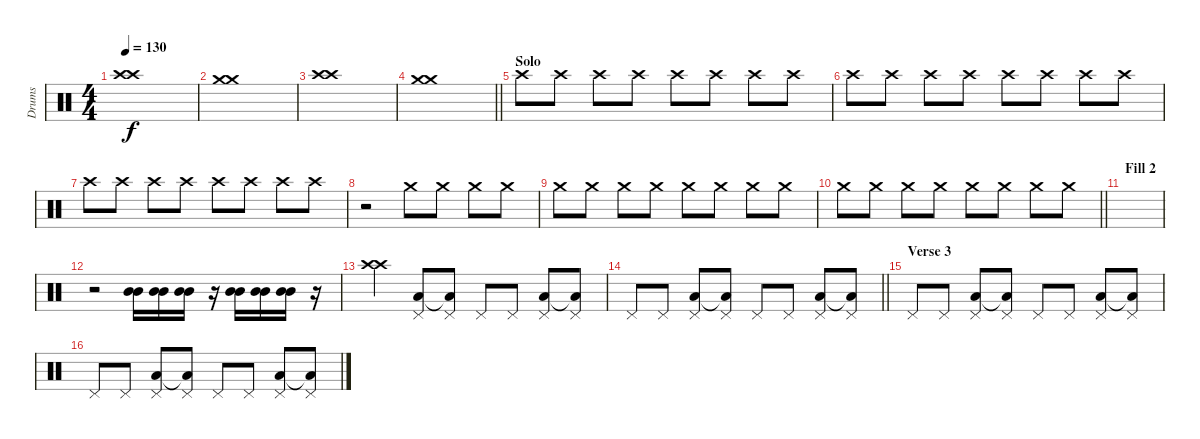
\track ("Drums" "Drums") {instrument percussion}
\staff {score}
\articulation defaults
\ts (4 4)
\tempo 130
\clef neutral
\ks c
("Crash high (hit)" "Crash high (hit)").1{dy f} |
("Crash medium (hit)" "Crash medium (hit)").1 |
("Crash high (hit)" "Crash high (hit)").1 |
\barLineRight lightlight
("Crash medium (hit)" "Crash medium (hit)").1 |
\section ("" "Solo")
"Crash high (hit)".8 "Crash high (hit)".8 "Crash high (hit)".8 "Crash high (hit)".8 "Crash high (hit)".8 "Crash high (hit)".8 "Crash high (hit)".8 "Crash high (hit)".8 |
"Crash high (hit)".8 "Crash high (hit)".8 "Crash high (hit)".8 "Crash high (hit)".8 "Crash high (hit)".8 "Crash high (hit)".8 "Crash high (hit)".8 "Crash high (hit)".8 |
"Crash high (hit)".8 "Crash high (hit)".8 "Crash high (hit)".8 "Crash high (hit)".8 "Crash high (hit)".8 "Crash high (hit)".8 "Crash high (hit)".8 "Crash high (hit)".8 |
r.2 "Crash medium (hit)".8 "Crash medium (hit)".8 "Crash medium (hit)".8 "Crash medium (hit)".8 |
"Crash medium (hit)".8 "Crash medium (hit)".8 "Crash medium (hit)".8 "Crash medium (hit)".8 "Crash medium (hit)".8 "Crash medium (hit)".8 "Crash medium (hit)".8 "Crash medium (hit)".8 |
\barLineRight lightlight "Crash medium (hit)".8 "Crash medium (hit)".8 "Crash medium (hit)".8 "Crash medium (hit)".8 "Crash medium (hit)".8 "Crash medium (hit)".8 "Crash medium (hit)".8 "Crash medium (hit)".8
|
\section ("" "Fill 2")
|
r.2 ("Mid Tom (hit)" "Mid Tom (hit)").16 ("Mid Tom (hit)" "Mid Tom (hit)").16 ("Mid Tom (hit)" "Mid Tom (hit)").16 r.16 ("Mid Tom (hit)" "Mid Tom (hit)").16 ("Mid Tom (hit)" "Mid Tom (hit)").16 ("Mid Tom (hit)" "Mid Tom (hit)").16 r.16 |
("Crash high (hit)" "Crash high (hit)").4 ("Pedal Hi-Hat (hit)" "Low Floor Tom (hit)").8 ("Pedal Hi-Hat (hit)" "Low Floor Tom (hit)"{t}).8 "Pedal Hi-Hat (hit)".8 "Pedal Hi-Hat (hit)".8 ("Pedal Hi-Hat (hit)" "Low Floor Tom (hit)").8 ("Pedal Hi-Hat (hit)" "Low Floor Tom (hit)"{t}).8 |
\barLineRight lightlight "Pedal Hi-Hat (hit)".8 "Pedal Hi-Hat (hit)".8
("Pedal Hi-Hat (hit)" "Low Floor Tom (hit)").8 ("Pedal Hi-Hat (hit)" "Low Floor Tom (hit)"{t}).8 "Pedal Hi-Hat (hit)".8 "Pedal Hi-Hat (hit)".8 ("Pedal Hi-Hat (hit)" "Low Floor Tom (hit)").8 ("Pedal Hi-Hat (hit)" "Low Floor Tom (hit)"{t}).8 |
\section ("" "Verse 3")
"Pedal Hi-Hat (hit)".8 "Pedal Hi-Hat (hit)".8 ("Pedal Hi-Hat (hit)" "Low Floor Tom (hit)").8 ("Pedal Hi-Hat (hit)" "Low Floor Tom (hit)"{t}).8 "Pedal Hi-Hat (hit)".8 "Pedal Hi-Hat (hit)".8 ("Pedal Hi-Hat (hit)" "Low Floor Tom (hit)").8 ("Pedal Hi-Hat (hit)" "Low Floor Tom (hit)"{t}).8 |
"Pedal Hi-Hat (hit)".8 "Pedal Hi-Hat (hit)".8 ("Pedal Hi-Hat (hit)" "Low Floor Tom (hit)").8 ("Pedal Hi-Hat (hit)" "Low Floor Tom (hit)"{t}).8 "Pedal Hi-Hat (hit)".8 "Pedal Hi-Hat (hit)".8 ("Pedal Hi-Hat (hit)" "Low Floor Tom (hit)").8 ("Pedal Hi-Hat (hit)" "Low Floor Tom (hit)"{t}).8
